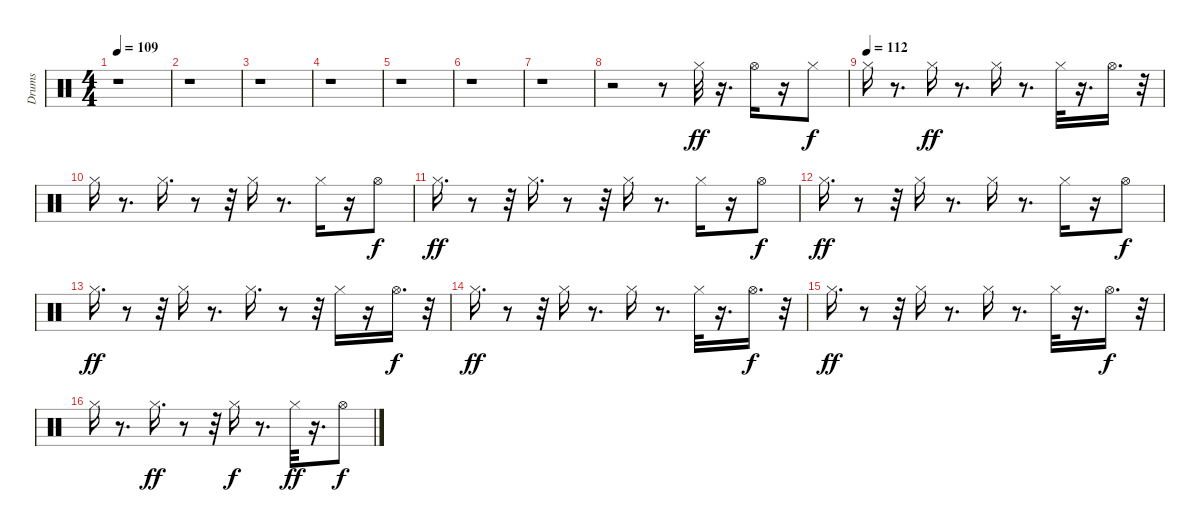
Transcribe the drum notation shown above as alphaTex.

\track ("Drums" "Drums") {instrument percussion}
\staff {score}
\articulation defaults
\ts (4 4)
\tempo 109
\clef neutral
\ks c
r.1{dy f} |
r.1 |
r.1 |
r.1 |
r.1 |
r.1 |
r.1 |
r.2 r.8 "Hi-Hat (closed)".32{dy ff} r.16{d} "Hi-Hat (open)".16 r.16 "Hi-Hat (closed)".8{dy f} |
\tempo (112)
"Hi-Hat (closed)".16 r.8{d} "Hi-Hat (closed)".16{dy ff} r.8{d} "Hi-Hat (closed)".16 r.8{d} "Hi-Hat (closed)".32 r.16{d} "Hi-Hat (open)".16{d} r.32 |
"Hi-Hat (closed)".16 r.8{d} "Hi-Hat (closed)".16{d} r.8 r.32 "Hi-Hat (closed)".16 r.8{d} "Hi-Hat (closed)".16 r.16 "Hi-Hat (open)".8{dy f} |
"Hi-Hat (closed)".16{d dy ff} r.8 r.32 "Hi-Hat (closed)".16{d} r.8 r.32 "Hi-Hat (closed)".16 r.8{d} "Hi-Hat (closed)".16 r.16 "Hi-Hat (open)".8{dy f} |
"Hi-Hat (closed)".16{d dy ff} r.8 r.32 "Hi-Hat (closed)".16 r.8{d} "Hi-Hat (closed)".16 r.8{d} "Hi-Hat (closed)".16 r.16 "Hi-Hat (open)".8{dy f} |
"Hi-Hat (closed)".16{d dy ff} r.8 r.32 "Hi-Hat (closed)".16 r.8{d} "Hi-Hat (closed)".16{d} r.8 r.32 "Hi-Hat (closed)".16 r.16 "Hi-Hat (open)".16{d dy f} r.32 |
"Hi-Hat (closed)".16{d dy ff} r.8 r.32 "Hi-Hat (closed)".16 r.8{d} "Hi-Hat (closed)".16 r.8{d} "Hi-Hat (closed)".32 r.16{d} "Hi-Hat (open)".16{d dy f} r.32 |
"Hi-Hat (closed)".16{d dy ff} r.8 r.32 "Hi-Hat (closed)".16 r.8{d} "Hi-Hat (closed)".16 r.8{d} "Hi-Hat (closed)".32 r.16{d} "Hi-Hat (open)".16{d dy f} r.32 |
"Hi-Hat (closed)".16 r.8{d} "Hi-Hat (closed)".16{d dy ff} r.8 r.32 "Hi-Hat (closed)".16{dy f} r.8{d} "Hi-Hat (closed)".32{dy ff} r.16{d} "Hi-Hat (open)".8{dy f}
